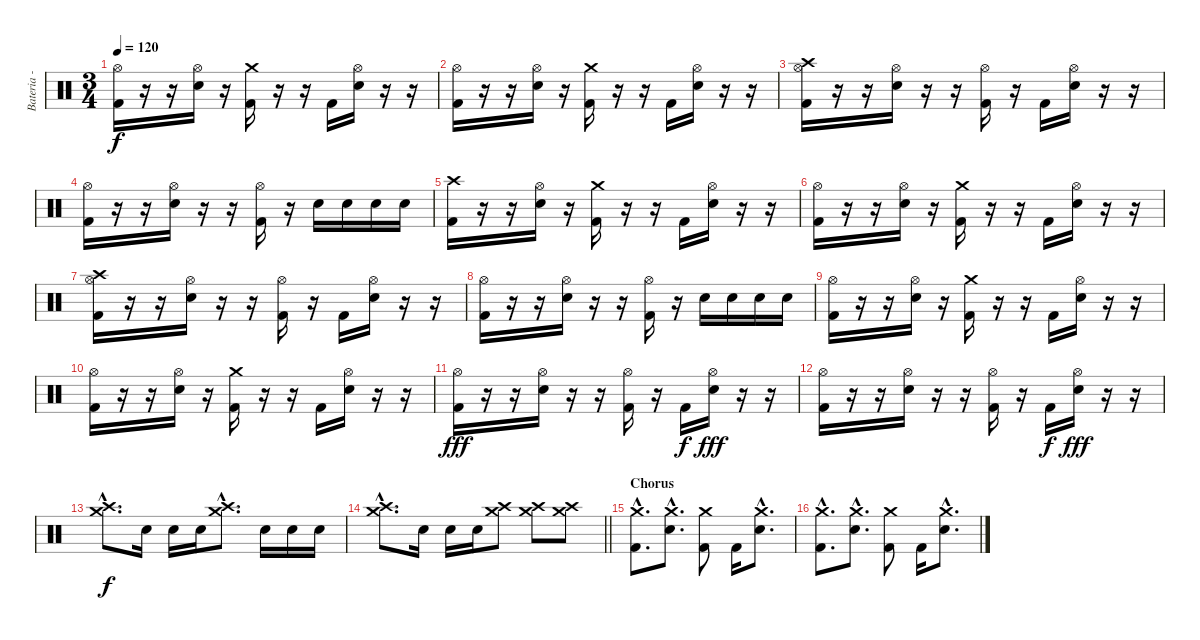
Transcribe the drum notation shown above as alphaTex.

\track ("Bateria - Larzon" "Bateria - ") {instrument percussion}
\staff {score}
\articulation defaults
\ts (3 4)
\tempo 120
\clef neutral
\ks c
("Kick (hit) 2" "Hi-Hat (open)").16{dy f} r.16 r.16 ("Electric Snare (hit)" "Hi-Hat (open)").16 r.16 ("Kick (hit) 2" "Crash medium (hit)").16 r.16 r.16 "Kick (hit) 2".16 ("Electric Snare (hit)" "Hi-Hat (open)").16 r.16 r.16 |
("Kick (hit) 2" "Hi-Hat (open)").16 r.16 r.16 ("Electric Snare (hit)" "Hi-Hat (open)").16 r.16 ("Kick (hit) 2" "Crash medium (hit)").16 r.16 r.16 "Kick (hit) 2".16 ("Electric Snare (hit)" "Hi-Hat (open)").16 r.16 r.16 |
("Kick (hit) 2" "Crash high (hit)" "Hi-Hat (open)").16 r.16 r.16 ("Electric Snare (hit)" "Hi-Hat (open)").16 r.16 r.16 ("Kick (hit) 2" "Hi-Hat (open)").16 r.16 "Kick (hit) 2".16 ("Electric Snare (hit)" "Hi-Hat (open)").16 r.16 r.16 |
("Kick (hit) 2" "Hi-Hat (open)").16 r.16 r.16 ("Electric Snare (hit)" "Hi-Hat (open)").16 r.16 r.16 ("Kick (hit) 2" "Hi-Hat (open)").16 r.16 "Electric Snare (hit)".16 "Electric Snare (hit)".16 "Electric Snare (hit)".16 "Electric Snare (hit)".16 |
("Kick (hit) 2" "Crash high (hit)").16 r.16 r.16 ("Electric Snare (hit)" "Hi-Hat (open)").16 r.16 ("Kick (hit) 2" "Crash medium (hit)").16 r.16 r.16 "Kick (hit) 2".16 ("Electric Snare (hit)" "Hi-Hat (open)").16 r.16 r.16 |
("Kick (hit) 2" "Hi-Hat (open)").16 r.16 r.16 ("Electric Snare (hit)" "Hi-Hat (open)").16 r.16 ("Kick (hit) 2" "Crash medium (hit)").16 r.16 r.16 "Kick (hit) 2".16 ("Electric Snare (hit)" "Hi-Hat (open)").16 r.16 r.16 |
("Kick (hit) 2" "Crash high (hit)" "Hi-Hat (open)").16 r.16 r.16 ("Electric Snare (hit)" "Hi-Hat (open)").16 r.16 r.16 ("Kick (hit) 2" "Hi-Hat (open)").16 r.16 "Kick (hit) 2".16 ("Electric Snare (hit)" "Hi-Hat (open)").16 r.16 r.16 |
("Kick (hit) 2" "Hi-Hat (open)").16 r.16 r.16 ("Electric Snare (hit)" "Hi-Hat (open)").16 r.16 r.16 ("Kick (hit) 2" "Hi-Hat (open)").16 r.16 "Electric Snare (hit)".16 "Electric Snare (hit)".16 "Electric Snare (hit)".16 "Electric Snare (hit)".16 |
("Kick (hit) 2" "Hi-Hat (open)").16 r.16 r.16 ("Electric Snare (hit)" "Hi-Hat (open)").16 r.16 ("Kick (hit) 2" "Crash medium (hit)").16 r.16 r.16 "Kick (hit) 2".16 ("Electric Snare (hit)" "Hi-Hat (open)").16 r.16 r.16 |
("Kick (hit) 2" "Hi-Hat (open)").16 r.16 r.16 ("Electric Snare (hit)" "Hi-Hat (open)").16 r.16 ("Kick (hit) 2" "Crash medium (hit)").16 r.16 r.16 "Kick (hit) 2".16 ("Electric Snare (hit)" "Hi-Hat (open)").16 r.16 r.16 |
("Kick (hit) 2" "Hi-Hat (open)").16{dy fff} r.16 r.16 ("Hi-Hat (open)" "Electric Snare (hit)").16 r.16 r.16 ("Kick (hit) 2" "Hi-Hat (open)").16 r.16 "Kick (hit) 2".16{dy f} ("Hi-Hat (open)" "Electric Snare (hit)").16{dy fff} r.16 r.16 |
("Kick (hit) 2" "Hi-Hat (open)").16 r.16 r.16 ("Hi-Hat (open)" "Electric Snare (hit)").16 r.16 r.16 ("Kick (hit) 2" "Hi-Hat (open)").16 r.16 "Kick (hit) 2".16{dy f} ("Hi-Hat (open)" "Electric Snare (hit)").16{dy fff} r.16 r.16 |
("Crash medium (hit)"{hac} "Crash high (hit)"{hac}).8{d dy f} "Electric Snare (hit)".16 "Electric Snare (hit)".16 "Electric Snare (hit)".16 ("Crash medium (hit)"{hac} "Crash high (hit)"{hac}).8{d} "Electric Snare (hit)".16 "Electric Snare (hit)".16 "Electric Snare (hit)".16 |
\barLineRight lightlight
("Crash medium (hit)"{hac} "Crash high (hit)"{hac}).8{d} "Electric Snare (hit)".16 "Electric Snare (hit)".16 "Electric Snare (hit)".16 ("Crash medium (hit)" "Crash high (hit)").8 ("Crash medium (hit)" "Crash high (hit)").8 ("Crash medium (hit)" "Crash high (hit)").8 |
\section ("" "Chorus")
("Kick (hit) 2"{hac} "Crash medium (hit)"{hac}).8{d} ("Electric Snare (hit)"{hac} "Crash medium (hit)"{hac}).8{d} ("Kick (hit) 2" "Crash medium (hit)").8 "Kick (hit) 2".16 ("Electric Snare (hit)"{hac} "Crash medium (hit)"{hac}).8{d} |
("Kick (hit) 2"{hac} "Crash medium (hit)"{hac}).8{d} ("Electric Snare (hit)"{hac} "Crash medium (hit)"{hac}).8{d} ("Kick (hit) 2" "Crash medium (hit)").8 "Kick (hit) 2".16 ("Electric Snare (hit)"{hac} "Crash medium (hit)"{hac}).8{d}
